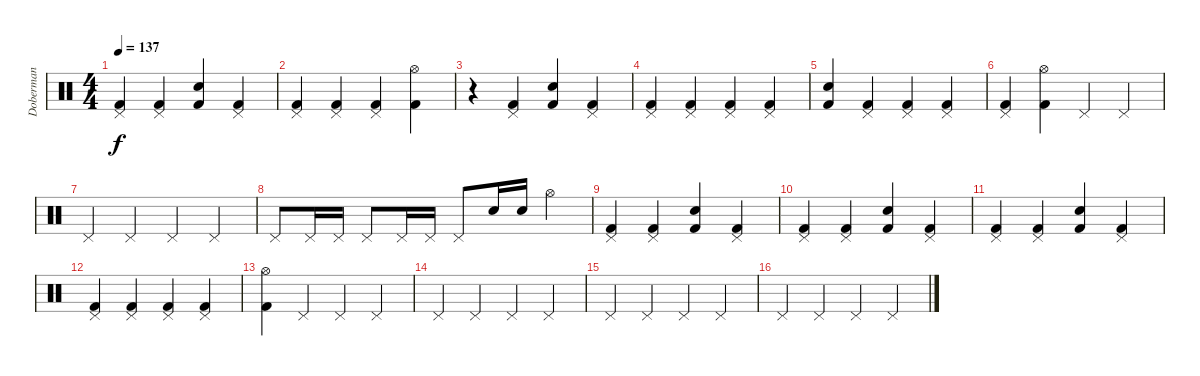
\track ("Doberman" "Doberman") {instrument percussion}
\staff {score}
\articulation defaults
\ts (4 4)
\tempo 137
\clef neutral
\ks c
("Pedal Hi-Hat (hit)" "Kick (hit) 2").4{dy f} ("Pedal Hi-Hat (hit)" "Kick (hit) 2").4 ("Snare (hit) 2" "Kick (hit) 2").4 ("Pedal Hi-Hat (hit)" "Kick (hit) 2").4 |
("Pedal Hi-Hat (hit)" "Kick (hit) 2").4 ("Pedal Hi-Hat (hit)" "Kick (hit) 2").4 ("Pedal Hi-Hat (hit)" "Kick (hit) 2").4 ("Hi-Hat (open)" "Kick (hit) 2").4 |
r.4 ("Pedal Hi-Hat (hit)" "Kick (hit) 2").4 ("Snare (hit) 2" "Kick (hit) 2").4 ("Pedal Hi-Hat (hit)" "Kick (hit) 2").4 |
("Pedal Hi-Hat (hit)" "Kick (hit) 2").4 ("Pedal Hi-Hat (hit)" "Kick (hit) 2").4 ("Pedal Hi-Hat (hit)" "Kick (hit) 2").4 ("Pedal Hi-Hat (hit)" "Kick (hit) 2").4 |
("Snare (hit) 2" "Kick (hit) 2").4 ("Pedal Hi-Hat (hit)" "Kick (hit) 2").4 ("Pedal Hi-Hat (hit)" "Kick (hit) 2").4 ("Pedal Hi-Hat (hit)" "Kick (hit) 2").4 |
("Pedal Hi-Hat (hit)" "Kick (hit) 2").4 ("Hi-Hat (open)" "Kick (hit) 2").4 "Pedal Hi-Hat (hit)".4 "Pedal Hi-Hat (hit)".4 |
"Pedal Hi-Hat (hit)".4 "Pedal Hi-Hat (hit)".4 "Pedal Hi-Hat (hit)".4 "Pedal Hi-Hat (hit)".4 |
"Pedal Hi-Hat (hit)".8 "Pedal Hi-Hat (hit)".16 "Pedal Hi-Hat (hit)".16 "Pedal Hi-Hat (hit)".8 "Pedal Hi-Hat (hit)".16 "Pedal Hi-Hat (hit)".16 "Pedal Hi-Hat (hit)".8 "Snare (hit) 2".16 "Snare (hit) 2".16 "Hi-Hat (open)".4 |
("Pedal Hi-Hat (hit)" "Kick (hit) 2").4 ("Pedal Hi-Hat (hit)" "Kick (hit) 2").4 ("Snare (hit) 2" "Kick (hit) 2").4 ("Pedal Hi-Hat (hit)" "Kick (hit) 2").4 |
("Pedal Hi-Hat (hit)" "Kick (hit) 2").4 ("Pedal Hi-Hat (hit)" "Kick (hit) 2").4 ("Snare (hit) 2" "Kick (hit) 2").4 ("Pedal Hi-Hat (hit)" "Kick (hit) 2").4 |
("Pedal Hi-Hat (hit)" "Kick (hit) 2").4 ("Pedal Hi-Hat (hit)" "Kick (hit) 2").4 ("Snare (hit) 2" "Kick (hit) 2").4 ("Pedal Hi-Hat (hit)" "Kick (hit) 2").4 |
("Pedal Hi-Hat (hit)" "Kick (hit) 2").4 ("Pedal Hi-Hat (hit)" "Kick (hit) 2").4 ("Pedal Hi-Hat (hit)" "Kick (hit) 2").4 ("Pedal Hi-Hat (hit)" "Kick (hit) 2").4 |
("Hi-Hat (open)" "Kick (hit) 2").4 "Pedal Hi-Hat (hit)".4 "Pedal Hi-Hat (hit)".4 "Pedal Hi-Hat (hit)".4 |
"Pedal Hi-Hat (hit)".4 "Pedal Hi-Hat (hit)".4 "Pedal Hi-Hat (hit)".4 "Pedal Hi-Hat (hit)".4 |
"Pedal Hi-Hat (hit)".4 "Pedal Hi-Hat (hit)".4 "Pedal Hi-Hat (hit)".4 "Pedal Hi-Hat (hit)".4 |
"Pedal Hi-Hat (hit)".4 "Pedal Hi-Hat (hit)".4 "Pedal Hi-Hat (hit)".4 "Pedal Hi-Hat (hit)".4
